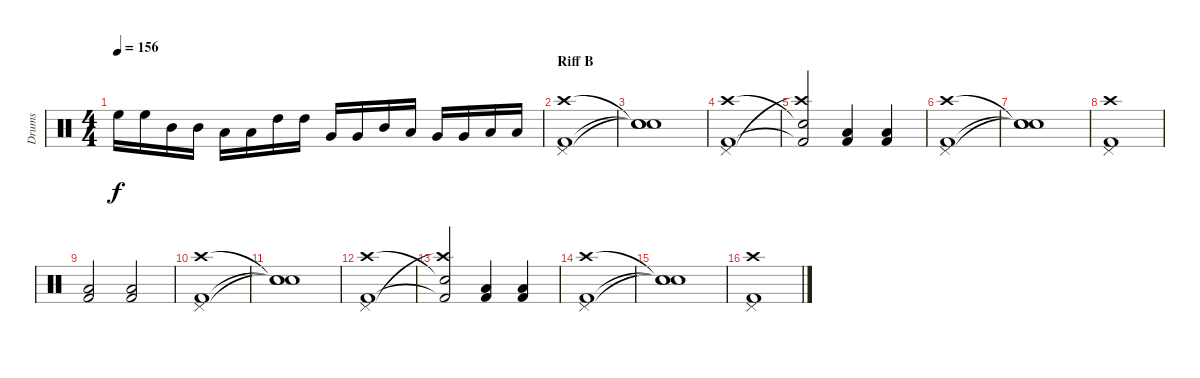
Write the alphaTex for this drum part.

\track ("Drums" "Drums") {instrument percussion}
\staff {score}
\articulation defaults
\ts (4 4)
\tempo 156
\clef neutral
\ks c "High Floor Tom (hit)".16{dy f} "High Floor Tom (hit)".16 "Mid Tom (hit)".16 "Mid Tom (hit)".16 "Low Tom (hit)".16 "Low Tom (hit)".16 "High Tom (hit)".16 "High Tom (hit)".16 "Very Low Tom (hit)".16 "Very Low Tom (hit)".16 "Mid Tom (hit)".16 "Low Tom (hit)".16 "Very Low Tom (hit)".16 "Very Low Tom (hit)".16 "Low Tom (hit)".16 "Low Tom (hit)".16
|
\section ("" "Riff B")
("Kick (hit) 2" "Pedal Hi-Hat (hit)" "Crash high (hit)").1 |
("Snare (hit)"{t} "Snare (hit)"{t} "Snare (hit)"{t}).1 |
("Kick (hit) 2" "Pedal Hi-Hat (hit)" "Crash high (hit)").1 |
("Kick (hit) 2"{t} "Crash high (hit)"{t} "Snare (hit)"{t}).2 ("Low Tom (hit)" "Kick (hit) 2").4 ("Low Tom (hit)" "Kick (hit) 2").4 |
("Kick (hit) 2" "Pedal Hi-Hat (hit)" "Crash high (hit)").1 |
("Snare (hit)"{t} "Snare (hit)"{t} "Snare (hit)"{t}).1 |
("Kick (hit) 2" "Pedal Hi-Hat (hit)" "Crash high (hit)").1 |
("Low Tom (hit)" "Kick (hit) 2").2 ("Low Tom (hit)" "Kick (hit) 2").2 |
("Kick (hit) 2" "Pedal Hi-Hat (hit)" "Crash high (hit)").1 |
("Snare (hit)"{t} "Snare (hit)"{t} "Snare (hit)"{t}).1 |
("Kick (hit) 2" "Pedal Hi-Hat (hit)" "Crash high (hit)").1 |
("Kick (hit) 2"{t} "Crash high (hit)"{t} "Snare (hit)"{t}).2 ("Low Tom (hit)" "Kick (hit) 2").4 ("Low Tom (hit)" "Kick (hit) 2").4 |
("Kick (hit) 2" "Pedal Hi-Hat (hit)" "Crash high (hit)").1 |
("Snare (hit)"{t} "Snare (hit)"{t} "Snare (hit)"{t}).1 |
("Kick (hit) 2" "Pedal Hi-Hat (hit)" "Crash high (hit)").1
